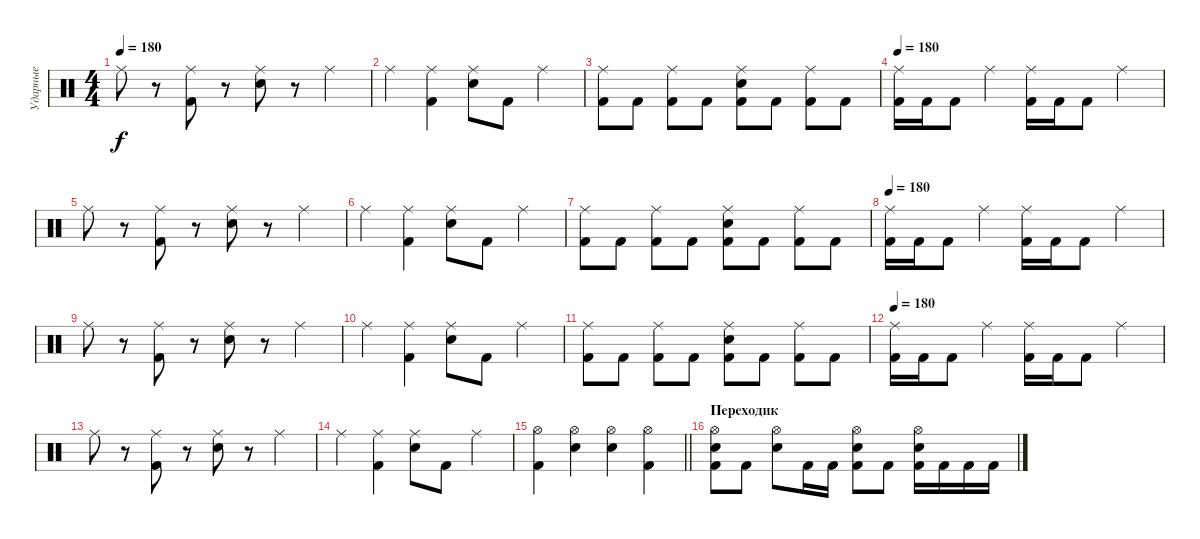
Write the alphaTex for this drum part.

\track ("Ударные" "Ударные") {instrument percussion}
\staff {score}
\articulation defaults
\ts (4 4)
\tempo 180
\clef neutral
\ks c "Ride (middle)".8{dy f}
r.8 ("Ride (middle)" "Kick (hit) 2").8 r.8 ("Ride (middle)" "Electric Snare (hit)").8 r.8 "Ride (middle)".4 |
"Ride (middle)".4 ("Ride (middle)" "Kick (hit) 2").4 ("Ride (middle)" "Electric Snare (hit)").8 "Kick (hit) 2".8 "Ride (middle)".4 |
("Ride (middle)" "Kick (hit) 2").8 "Kick (hit) 2".8 ("Ride (middle)" "Kick (hit) 2").8 "Kick (hit) 2".8 ("Ride (middle)" "Electric Snare (hit)" "Kick (hit) 2").8 "Kick (hit) 2".8 ("Ride (middle)" "Kick (hit) 2").8 "Kick (hit) 2".8 |
\tempo 180
("Ride (middle)" "Kick (hit) 2").16 "Kick (hit) 2".16 "Kick (hit) 2".8 "Ride (middle)".4 ("Ride (middle)" "Kick (hit) 2").16 "Kick (hit) 2".16 "Kick (hit) 2".8 "Ride (middle)".4 |
"Ride (middle)".8 r.8 ("Ride (middle)" "Kick (hit) 2").8 r.8 ("Ride (middle)" "Electric Snare (hit)").8 r.8 "Ride (middle)".4 |
"Ride (middle)".4 ("Ride (middle)" "Kick (hit) 2").4 ("Ride (middle)" "Electric Snare (hit)").8 "Kick (hit) 2".8 "Ride (middle)".4 |
("Ride (middle)" "Kick (hit) 2").8 "Kick (hit) 2".8 ("Ride (middle)" "Kick (hit) 2").8 "Kick (hit) 2".8 ("Ride (middle)" "Electric Snare (hit)" "Kick (hit) 2").8 "Kick (hit) 2".8 ("Ride (middle)" "Kick (hit) 2").8 "Kick (hit) 2".8 |
\tempo 180
("Ride (middle)" "Kick (hit) 2").16 "Kick (hit) 2".16 "Kick (hit) 2".8 "Ride (middle)".4 ("Ride (middle)" "Kick (hit) 2").16 "Kick (hit) 2".16 "Kick (hit) 2".8 "Ride (middle)".4 |
"Ride (middle)".8 r.8 ("Ride (middle)" "Kick (hit) 2").8 r.8 ("Ride (middle)" "Electric Snare (hit)").8 r.8 "Ride (middle)".4 |
"Ride (middle)".4 ("Ride (middle)" "Kick (hit) 2").4 ("Ride (middle)" "Electric Snare (hit)").8 "Kick (hit) 2".8 "Ride (middle)".4 |
("Ride (middle)" "Kick (hit) 2").8 "Kick (hit) 2".8 ("Ride (middle)" "Kick (hit) 2").8 "Kick (hit) 2".8 ("Ride (middle)" "Electric Snare (hit)" "Kick (hit) 2").8 "Kick (hit) 2".8 ("Ride (middle)" "Kick (hit) 2").8 "Kick (hit) 2".8 |
\tempo 180
("Ride (middle)" "Kick (hit) 2").16 "Kick (hit) 2".16 "Kick (hit) 2".8 "Ride (middle)".4 ("Ride (middle)" "Kick (hit) 2").16 "Kick (hit) 2".16 "Kick (hit) 2".8 "Ride (middle)".4 |
"Ride (middle)".8 r.8 ("Ride (middle)" "Kick (hit) 2").8 r.8 ("Ride (middle)" "Electric Snare (hit)").8 r.8 "Ride (middle)".4 |
"Ride (middle)".4 ("Ride (middle)" "Kick (hit) 2").4 ("Ride (middle)" "Electric Snare (hit)").8 "Kick (hit) 2".8 "Ride (middle)".4 |
\barLineRight lightlight
("Hi-Hat (open)" "Kick (hit) 2").4 ("Hi-Hat (open)" "Electric Snare (hit)").4 ("Hi-Hat (open)" "Electric Snare (hit)").4 ("Hi-Hat (open)" "Kick (hit) 2").4 |
\section ("" "Переходик")
("Hi-Hat (open)" "Electric Snare (hit)" "Kick (hit) 2").8 "Kick (hit) 2".8 ("Hi-Hat (open)" "Electric Snare (hit)").8 "Kick (hit) 2".16 "Kick (hit) 2".16 ("Hi-Hat (open)" "Electric Snare (hit)" "Kick (hit) 2").8 "Kick (hit) 2".8 ("Hi-Hat (open)" "Electric Snare (hit)" "Kick (hit) 2").16 "Kick (hit) 2".16 "Kick (hit) 2".16 "Kick (hit) 2".16
